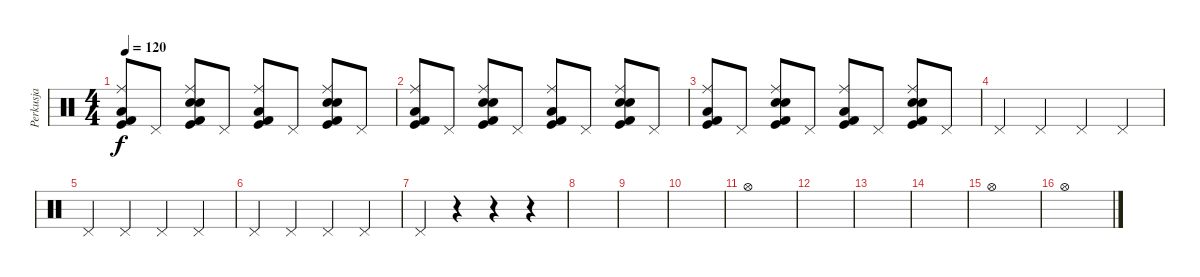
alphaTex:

\track ("Perkusja" "Perkusja") {instrument percussion}
\staff {score}
\articulation defaults
\ts (4 4)
\tempo 120
\clef neutral
\ks c
("Kick (hit) 2" "Kick (hit)" "Low Floor Tom (hit)" "Ride (middle)").8{dy f} "Pedal Hi-Hat (hit)".8 ("Kick (hit) 2" "Kick (hit)" "Snare (hit) 2" "Electric Snare (hit)" "Ride (middle)").8 "Pedal Hi-Hat (hit)".8 ("Kick (hit) 2" "Kick (hit)" "Low Floor Tom (hit)" "Ride (middle)").8 "Pedal Hi-Hat (hit)".8 ("Kick (hit) 2" "Kick (hit)" "Snare (hit) 2" "Electric Snare (hit)" "Ride (middle)").8 "Pedal Hi-Hat (hit)".8 |
("Kick (hit) 2" "Kick (hit)" "Low Floor Tom (hit)" "Ride (middle)").8 "Pedal Hi-Hat (hit)".8 ("Kick (hit) 2" "Kick (hit)" "Snare (hit) 2" "Electric Snare (hit)" "Ride (middle)").8 "Pedal Hi-Hat (hit)".8 ("Kick (hit) 2" "Kick (hit)" "Low Floor Tom (hit)" "Ride (middle)").8 "Pedal Hi-Hat (hit)".8 ("Kick (hit) 2" "Kick (hit)" "Snare (hit) 2" "Electric Snare (hit)" "Ride (middle)").8 "Pedal Hi-Hat (hit)".8 |
("Kick (hit) 2" "Kick (hit)" "Low Floor Tom (hit)" "Ride (middle)").8 "Pedal Hi-Hat (hit)".8 ("Kick (hit) 2" "Kick (hit)" "Snare (hit) 2" "Electric Snare (hit)" "Ride (middle)").8 "Pedal Hi-Hat (hit)".8 ("Kick (hit) 2" "Kick (hit)" "Low Floor Tom (hit)" "Ride (middle)").8 "Pedal Hi-Hat (hit)".8 ("Kick (hit) 2" "Kick (hit)" "Snare (hit) 2" "Electric Snare (hit)" "Ride (middle)").8 "Pedal Hi-Hat (hit)".8 |
"Pedal Hi-Hat (hit)".4 "Pedal Hi-Hat (hit)".4 "Pedal Hi-Hat (hit)".4 "Pedal Hi-Hat (hit)".4 |
"Pedal Hi-Hat (hit)".4 "Pedal Hi-Hat (hit)".4 "Pedal Hi-Hat (hit)".4 "Pedal Hi-Hat (hit)".4 |
"Pedal Hi-Hat (hit)".4 "Pedal Hi-Hat (hit)".4 "Pedal Hi-Hat (hit)".4 "Pedal Hi-Hat (hit)".4 |
"Pedal Hi-Hat (hit)".4 r.4 r.4 r.4 |
|
|
|
"Hi-Hat (open)".1 |
|
|
|
"Hi-Hat (open)".1 |
"Hi-Hat (open)".1
